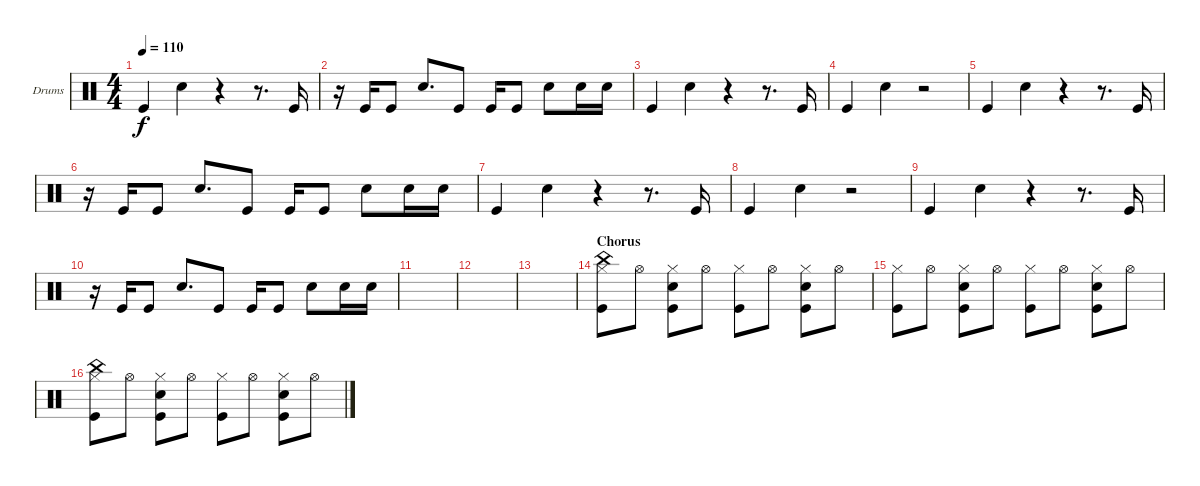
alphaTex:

\bracketExtendMode groupsimilarinstruments
\firstSystemTrackNameOrientation horizontal
\otherSystemsTrackNameOrientation horizontal
\track ("Drumkit" "Drums") {instrument percussion}
\staff {score}
\articulation defaults
\ts (4 4)
\tempo 110
\clef neutral
\ks c "Kick (hit)".4{dy f} "Snare (hit) 2".4
r.4 r.8{d} "Kick (hit)".16 |
r.16 "Kick (hit)".16 "Kick (hit)".8 "Snare (hit) 2".8{d} "Kick (hit)".8 "Kick (hit)".16 "Kick (hit)".8 "Snare (hit) 2".8 "Snare (hit) 2".16 "Snare (hit) 2".16 |
"Kick (hit)".4 "Snare (hit) 2".4 r.4 r.8{d} "Kick (hit)".16 |
"Kick (hit)".4 "Snare (hit) 2".4 r.2 |
"Kick (hit)".4 "Snare (hit) 2".4 r.4 r.8{d} "Kick (hit)".16 |
r.16 "Kick (hit)".16 "Kick (hit)".8 "Snare (hit) 2".8{d} "Kick (hit)".8 "Kick (hit)".16 "Kick (hit)".8 "Snare (hit) 2".8 "Snare (hit) 2".16 "Snare (hit) 2".16 |
"Kick (hit)".4 "Snare (hit) 2".4 r.4 r.8{d} "Kick (hit)".16 |
"Kick (hit)".4 "Snare (hit) 2".4 r.2 |
"Kick (hit)".4 "Snare (hit) 2".4 r.4 r.8{d} "Kick (hit)".16 |
r.16 "Kick (hit)".16 "Kick (hit)".8 "Snare (hit) 2".8{d} "Kick (hit)".8 "Kick (hit)".16 "Kick (hit)".8 "Snare (hit) 2".8 "Snare (hit) 2".16 "Snare (hit) 2".16 |
|
|
|
\section ("" "Chorus")
("Kick (hit)" "Hi-Hat (closed)" "China (hit)").8 "Hi-Hat (open)".8 ("Snare (hit) 2" "Kick (hit)" "Hi-Hat (closed)").8 "Hi-Hat (open)".8 ("Kick (hit)" "Hi-Hat (closed)").8 "Hi-Hat (open)".8 ("Snare (hit) 2" "Kick (hit)" "Hi-Hat (closed)").8 "Hi-Hat (open)".8 |
("Kick (hit)" "Hi-Hat (closed)").8 "Hi-Hat (open)".8 ("Snare (hit) 2" "Kick (hit)" "Hi-Hat (closed)").8 "Hi-Hat (open)".8 ("Kick (hit)" "Hi-Hat (closed)").8 "Hi-Hat (open)".8 ("Snare (hit) 2" "Kick (hit)" "Hi-Hat (closed)").8 "Hi-Hat (open)".8 |
("Kick (hit)" "Hi-Hat (closed)" "China (hit)").8 "Hi-Hat (open)".8 ("Snare (hit) 2" "Kick (hit)" "Hi-Hat (closed)").8 "Hi-Hat (open)".8 ("Kick (hit)" "Hi-Hat (closed)").8 "Hi-Hat (open)".8 ("Snare (hit) 2" "Kick (hit)" "Hi-Hat (closed)").8 "Hi-Hat (open)".8
